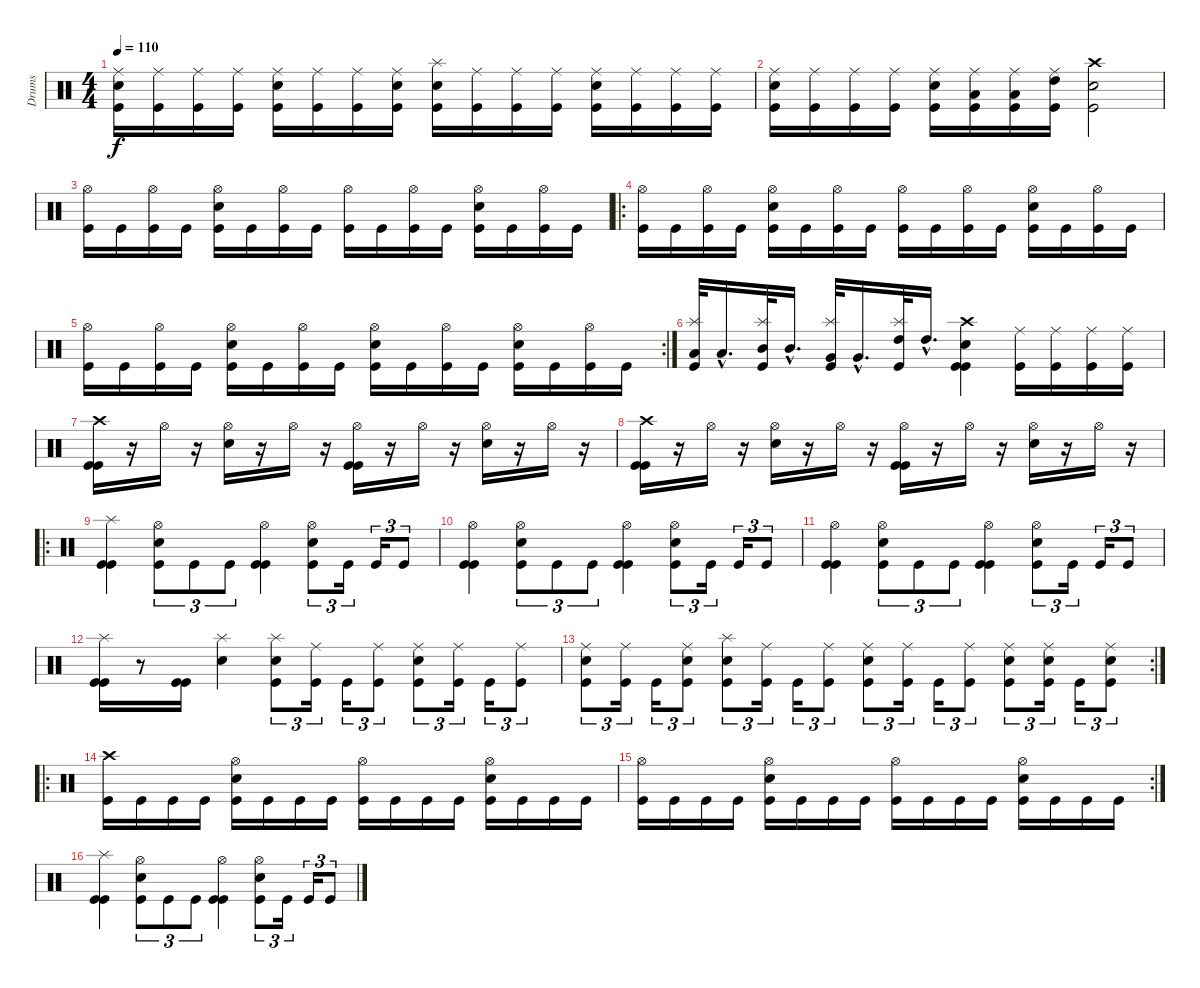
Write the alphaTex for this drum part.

\track ("Drums" "Drums") {instrument percussion}
\staff {score}
\articulation defaults
\ts (4 4)
\tempo 110
\clef neutral
\ks c
("Ride (middle)" "Snare (hit) 2" "Kick (hit)").16{dy f} ("Ride (middle)" "Kick (hit)").16 ("Ride (middle)" "Kick (hit)").16 ("Ride (middle)" "Kick (hit)").16 ("Ride (middle)" "Snare (hit) 2" "Kick (hit)").16 ("Ride (middle)" "Kick (hit)").16 ("Ride (middle)" "Kick (hit)").16 ("Ride (middle)" "Snare (hit) 2" "Kick (hit)").16 ("Splash (hit)" "Snare (hit) 2" "Kick (hit)").16 ("Ride (middle)" "Kick (hit)").16 ("Ride (middle)" "Kick (hit)").16 ("Ride (middle)" "Kick (hit)").16 ("Ride (middle)" "Snare (hit) 2" "Kick (hit)").16 ("Ride (middle)" "Kick (hit)").16 ("Ride (middle)" "Kick (hit)").16 ("Ride (middle)" "Kick (hit)").16 |
("Ride (middle)" "Snare (hit) 2" "Kick (hit)").16 ("Ride (middle)" "Kick (hit)").16 ("Ride (middle)" "Kick (hit)").16 ("Ride (middle)" "Kick (hit)").16 ("Ride (middle)" "Snare (hit) 2" "Kick (hit)").16 ("Ride (middle)" "Low Tom (hit)" "Kick (hit)").16 ("Ride (middle)" "Low Tom (hit)" "Kick (hit)").16 ("Ride (middle)" "High Tom (hit)" "Kick (hit)").16 ("Crash high (hit)" "Snare (hit) 2" "Kick (hit)").2 |
("Hi-Hat (open)" "Kick (hit)").16 "Kick (hit)".16 ("Hi-Hat (open)" "Kick (hit)").16 "Kick (hit)".16 ("Hi-Hat (open)" "Snare (hit) 2" "Kick (hit)").16 "Kick (hit)".16 ("Hi-Hat (open)" "Kick (hit)").16 "Kick (hit)".16 ("Hi-Hat (open)" "Kick (hit)").16 "Kick (hit)".16 ("Hi-Hat (open)" "Kick (hit)").16 "Kick (hit)".16 ("Hi-Hat (open)" "Snare (hit) 2" "Kick (hit)").16 "Kick (hit)".16 ("Hi-Hat (open)" "Kick (hit)").16 "Kick (hit)".16 |
\ro
("Hi-Hat (open)" "Kick (hit)").16 "Kick (hit)".16 ("Hi-Hat (open)" "Kick (hit)").16 "Kick (hit)".16 ("Hi-Hat (open)" "Snare (hit) 2" "Kick (hit)").16 "Kick (hit)".16 ("Hi-Hat (open)" "Kick (hit)").16 "Kick (hit)".16 ("Hi-Hat (open)" "Kick (hit)").16 "Kick (hit)".16 ("Hi-Hat (open)" "Kick (hit)").16 "Kick (hit)".16 ("Hi-Hat (open)" "Snare (hit) 2" "Kick (hit)").16 "Kick (hit)".16 ("Hi-Hat (open)" "Kick (hit)").16 "Kick (hit)".16 |
\rc 2
("Hi-Hat (open)" "Kick (hit)").16 "Kick (hit)".16 ("Hi-Hat (open)" "Kick (hit)").16 "Kick (hit)".16 ("Hi-Hat (open)" "Snare (hit) 2" "Kick (hit)").16 "Kick (hit)".16 ("Hi-Hat (open)" "Kick (hit)").16 "Kick (hit)".16 ("Hi-Hat (open)" "Snare (hit) 2" "Kick (hit)").16 "Kick (hit)".16 ("Hi-Hat (open)" "Kick (hit)").16 "Kick (hit)".16 ("Hi-Hat (open)" "Snare (hit) 2" "Kick (hit)").16 "Kick (hit)".16 ("Hi-Hat (open)" "Kick (hit)").16 "Kick (hit)".16 |
("Splash (hit)" "Low Tom (hit)" "Kick (hit)").32 "Low Tom (hit)"{hac}.16{d} ("Splash (hit)" "Mid Tom (hit)" "Kick (hit)").32 "Mid Tom (hit)"{hac}.16{d} ("Splash (hit)" "Very Low Tom (hit)" "Kick (hit)").32 "Very Low Tom (hit)"{hac}.16{d} ("Splash (hit)" "High Tom (hit)" "Kick (hit)").32 "High Tom (hit)"{hac}.16{d} ("Crash high (hit)" "Snare (hit) 2" "Kick (hit)" "Kick (hit)").4 ("Ride (middle)" "Kick (hit)").16 ("Ride (middle)" "Kick (hit)").16 ("Ride (middle)" "Kick (hit)").16 ("Ride (middle)" "Kick (hit)").16 |
("Crash high (hit)" "Kick (hit)" "Kick (hit)").16 r.16 "Hi-Hat (open)".16 r.16 ("Hi-Hat (open)" "Snare (hit) 2").16 r.16 "Hi-Hat (open)".16 r.16 ("Hi-Hat (open)" "Kick (hit)" "Kick (hit)").16 r.16 "Hi-Hat (open)".16 r.16 ("Hi-Hat (open)" "Snare (hit) 2").16 r.16 "Hi-Hat (open)".16 r.16 |
("Crash high (hit)" "Kick (hit)" "Kick (hit)").16 r.16 "Hi-Hat (open)".16 r.16 ("Hi-Hat (open)" "Snare (hit) 2").16 r.16 "Hi-Hat (open)".16 r.16 ("Hi-Hat (open)" "Kick (hit)" "Kick (hit)").16 r.16 "Hi-Hat (open)".16 r.16 ("Hi-Hat (open)" "Snare (hit) 2").16 r.16 "Hi-Hat (open)".16 r.16 |
\ro
("Splash (hit)" "Kick (hit)" "Kick (hit)").4 ("Hi-Hat (open)" "Snare (hit) 2" "Kick (hit)").8{tu (3 2)} "Kick (hit)".8{tu (3 2)} "Kick (hit)".8{tu (3 2)} ("Hi-Hat (open)" "Kick (hit)" "Kick (hit)").4 ("Hi-Hat (open)" "Snare (hit) 2" "Kick (hit)").8{tu (3 2)} "Kick (hit)".16{tu (3 2)} "Kick (hit)".16{tu (3 2)} "Kick (hit)".8{tu (3 2)} |
("Hi-Hat (open)" "Kick (hit)" "Kick (hit)").4 ("Hi-Hat (open)" "Snare (hit) 2" "Kick (hit)").8{tu (3 2)} "Kick (hit)".8{tu (3 2)} "Kick (hit)".8{tu (3 2)} ("Hi-Hat (open)" "Kick (hit)" "Kick (hit)").4 ("Hi-Hat (open)" "Snare (hit) 2" "Kick (hit)").8{tu (3 2)} "Kick (hit)".16{tu (3 2)} "Kick (hit)".16{tu (3 2)} "Kick (hit)".8{tu (3 2)} |
("Hi-Hat (open)" "Kick (hit)" "Kick (hit)").4 ("Hi-Hat (open)" "Snare (hit) 2" "Kick (hit)").8{tu (3 2)} "Kick (hit)".8{tu (3 2)} "Kick (hit)".8{tu (3 2)} ("Hi-Hat (open)" "Kick (hit)" "Kick (hit)").4 ("Hi-Hat (open)" "Snare (hit) 2" "Kick (hit)").8{tu (3 2)} "Kick (hit)".16{tu (3 2)} "Kick (hit)".16{tu (3 2)} "Kick (hit)".8{tu (3 2)} |
("Splash (hit)" "Kick (hit)" "Kick (hit)").16 r.8 ("Kick (hit)" "Kick (hit)").16 ("Splash (hit)" "Snare (hit) 2").4 ("Splash (hit)" "Snare (hit) 2" "Kick (hit)").8{tu (3 2)} ("Ride (middle)" "Kick (hit)").16{tu (3 2)} "Kick (hit)".16{tu (3 2)} ("Ride (middle)" "Kick (hit)").8{tu (3 2)} ("Ride (middle)" "Snare (hit) 2" "Kick (hit)").8{tu (3 2)} ("Ride (middle)" "Kick (hit)").16{tu (3 2)} "Kick (hit)".16{tu (3 2)} ("Ride (middle)" "Kick (hit)").8{tu (3 2)} |
\rc 2
("Ride (middle)" "Snare (hit) 2" "Kick (hit)").8{tu (3 2)} ("Ride (middle)" "Kick (hit)").16{tu (3 2)} "Kick (hit)".16{tu (3 2)} ("Ride (middle)" "Snare (hit) 2" "Kick (hit)").8{tu (3 2)} ("Splash (hit)" "Snare (hit) 2" "Kick (hit)").8{tu (3 2)} ("Ride (middle)" "Kick (hit)").16{tu (3 2)} "Kick (hit)".16{tu (3 2)} ("Ride (middle)" "Kick (hit)").8{tu (3 2)} ("Ride (middle)" "Snare (hit) 2" "Kick (hit)").8{tu (3 2)} ("Ride (middle)" "Kick (hit)").16{tu (3 2)} "Kick (hit)".16{tu (3 2)} ("Ride (middle)" "Kick (hit)").8{tu (3 2)} ("Ride (middle)" "Snare (hit) 2" "Kick (hit)").8{tu (3 2)} ("Ride (middle)" "Snare (hit) 2" "Kick (hit)").16{tu (3 2)} "Kick (hit)".16{tu (3 2)} ("Ride (middle)" "Snare (hit) 2" "Kick (hit)").8{tu (3 2)} |
\ro
("Crash high (hit)" "Kick (hit)").16 "Kick (hit)".16 "Kick (hit)".16 "Kick (hit)".16 ("Hi-Hat (open)" "Snare (hit) 2" "Kick (hit)").16 "Kick (hit)".16 "Kick (hit)".16 "Kick (hit)".16 ("Hi-Hat (open)" "Kick (hit)").16 "Kick (hit)".16 "Kick (hit)".16 "Kick (hit)".16 ("Hi-Hat (open)" "Snare (hit) 2" "Kick (hit)").16 "Kick (hit)".16 "Kick (hit)".16 "Kick (hit)".16 |
\rc 2
("Hi-Hat (open)" "Kick (hit)").16 "Kick (hit)".16 "Kick (hit)".16 "Kick (hit)".16 ("Hi-Hat (open)" "Snare (hit) 2" "Kick (hit)").16 "Kick (hit)".16 "Kick (hit)".16 "Kick (hit)".16 ("Hi-Hat (open)" "Kick (hit)").16 "Kick (hit)".16 "Kick (hit)".16 "Kick (hit)".16 ("Hi-Hat (open)" "Snare (hit) 2" "Kick (hit)").16 "Kick (hit)".16 "Kick (hit)".16 "Kick (hit)".16 |
("Splash (hit)" "Kick (hit)" "Kick (hit)").4{volume 14} ("Hi-Hat (open)" "Snare (hit) 2" "Kick (hit)").8{tu (3 2)} "Kick (hit)".8{tu (3 2)} "Kick (hit)".8{tu (3 2)} ("Hi-Hat (open)" "Kick (hit)" "Kick (hit)").4 ("Hi-Hat (open)" "Snare (hit) 2" "Kick (hit)").8{tu (3 2)} "Kick (hit)".16{tu (3 2)} "Kick (hit)".16{tu (3 2)} "Kick (hit)".8{tu (3 2)}
